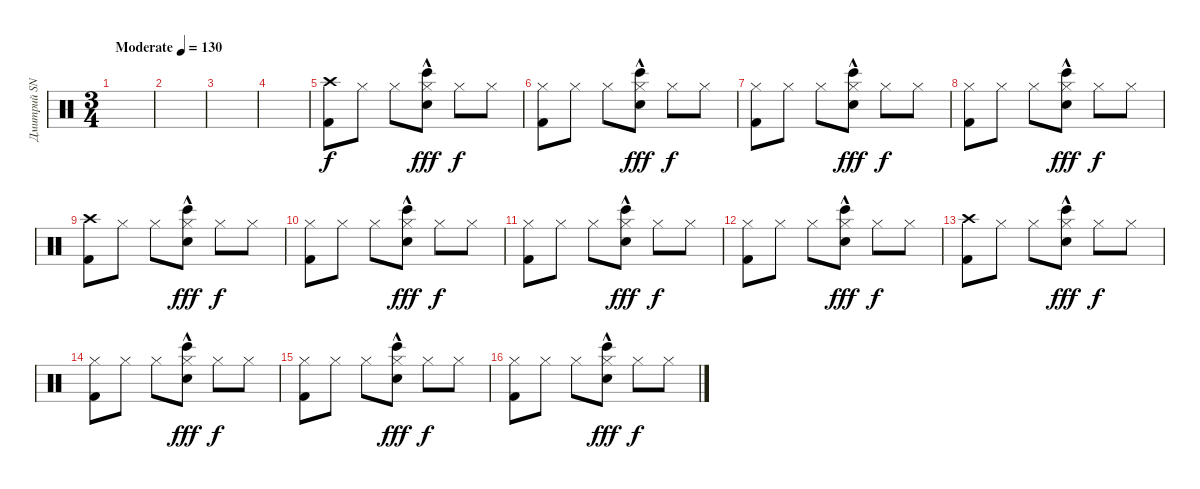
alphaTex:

\track ("Дмитрий SNAKE Хакимов" "Дмитрий SN") {instrument percussion}
\staff {score}
\articulation defaults
\ts (3 4)
\tempo (130 "Moderate")
\clef neutral
\ks c
|
|
|
|
("Crash high (hit)" "Kick (hit) 2").8 "Hi-Hat (closed)".8 "Hi-Hat (closed)".8 ("Hi-Hat (closed)" "Snare (hit) 2"{hac} "Bongo High (hit)").8{dy fff} "Hi-Hat (closed)".8{dy f} "Hi-Hat (closed)".8 |
("Hi-Hat (closed)" "Kick (hit) 2").8 "Hi-Hat (closed)".8 "Hi-Hat (closed)".8 ("Hi-Hat (closed)" "Snare (hit) 2"{hac} "Bongo High (hit)").8{dy fff} "Hi-Hat (closed)".8{dy f} "Hi-Hat (closed)".8 |
("Hi-Hat (closed)" "Kick (hit) 2").8 "Hi-Hat (closed)".8 "Hi-Hat (closed)".8 ("Hi-Hat (closed)" "Snare (hit) 2"{hac} "Bongo High (hit)").8{dy fff} "Hi-Hat (closed)".8{dy f} "Hi-Hat (closed)".8 |
("Hi-Hat (closed)" "Kick (hit) 2").8 "Hi-Hat (closed)".8 "Hi-Hat (closed)".8 ("Hi-Hat (closed)" "Snare (hit) 2"{hac} "Bongo High (hit)").8{dy fff} "Hi-Hat (closed)".8{dy f} "Hi-Hat (closed)".8 |
("Crash high (hit)" "Kick (hit) 2").8 "Hi-Hat (closed)".8 "Hi-Hat (closed)".8 ("Hi-Hat (closed)" "Snare (hit) 2"{hac} "Bongo High (hit)").8{dy fff} "Hi-Hat (closed)".8{dy f} "Hi-Hat (closed)".8 |
("Hi-Hat (closed)" "Kick (hit) 2").8 "Hi-Hat (closed)".8 "Hi-Hat (closed)".8 ("Hi-Hat (closed)" "Snare (hit) 2"{hac} "Bongo High (hit)").8{dy fff} "Hi-Hat (closed)".8{dy f} "Hi-Hat (closed)".8 |
("Hi-Hat (closed)" "Kick (hit) 2").8 "Hi-Hat (closed)".8 "Hi-Hat (closed)".8 ("Hi-Hat (closed)" "Snare (hit) 2"{hac} "Bongo High (hit)").8{dy fff} "Hi-Hat (closed)".8{dy f} "Hi-Hat (closed)".8 |
("Hi-Hat (closed)" "Kick (hit) 2").8 "Hi-Hat (closed)".8 "Hi-Hat (closed)".8 ("Hi-Hat (closed)" "Snare (hit) 2"{hac} "Bongo High (hit)").8{dy fff} "Hi-Hat (closed)".8{dy f} "Hi-Hat (closed)".8 |
("Crash high (hit)" "Kick (hit) 2").8 "Hi-Hat (closed)".8 "Hi-Hat (closed)".8 ("Hi-Hat (closed)" "Snare (hit) 2"{hac} "Bongo High (hit)").8{dy fff} "Hi-Hat (closed)".8{dy f} "Hi-Hat (closed)".8 |
("Hi-Hat (closed)" "Kick (hit) 2").8 "Hi-Hat (closed)".8 "Hi-Hat (closed)".8 ("Hi-Hat (closed)" "Snare (hit) 2"{hac} "Bongo High (hit)").8{dy fff} "Hi-Hat (closed)".8{dy f} "Hi-Hat (closed)".8 |
("Hi-Hat (closed)" "Kick (hit) 2").8 "Hi-Hat (closed)".8 "Hi-Hat (closed)".8 ("Hi-Hat (closed)" "Snare (hit) 2"{hac} "Bongo High (hit)").8{dy fff} "Hi-Hat (closed)".8{dy f} "Hi-Hat (closed)".8 |
("Hi-Hat (closed)" "Kick (hit) 2").8 "Hi-Hat (closed)".8 "Hi-Hat (closed)".8 ("Hi-Hat (closed)" "Snare (hit) 2"{hac} "Bongo High (hit)").8{dy fff} "Hi-Hat (closed)".8{dy f} "Hi-Hat (closed)".8
